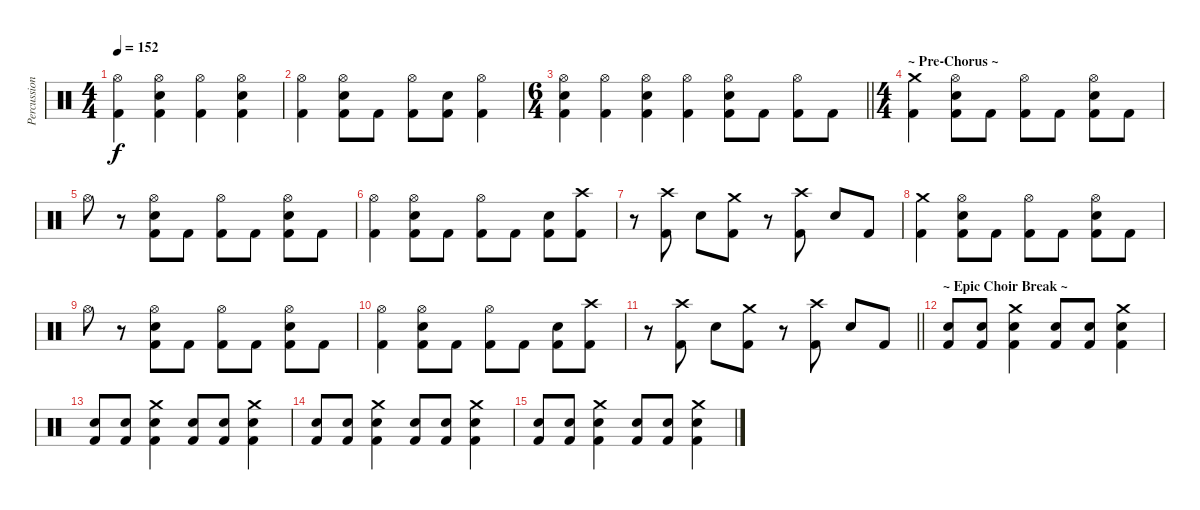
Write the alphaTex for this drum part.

\track ("Percussion" "Percussion") {instrument percussion}
\staff {score}
\articulation defaults
\ts (4 4)
\tempo 152
\clef neutral
\ks c
("Hi-Hat (open)" "Kick (hit) 2").4{dy f} ("Hi-Hat (open)" "Electric Snare (hit)" "Kick (hit) 2").4 ("Hi-Hat (open)" "Kick (hit) 2").4 ("Hi-Hat (open)" "Electric Snare (hit)" "Kick (hit) 2").4 |
("Hi-Hat (open)" "Kick (hit) 2").4 ("Hi-Hat (open)" "Electric Snare (hit)" "Kick (hit) 2").8 "Kick (hit) 2".8 ("Hi-Hat (open)" "Kick (hit) 2").8 ("Electric Snare (hit)" "Kick (hit) 2").8 ("Hi-Hat (open)" "Kick (hit) 2").4 |
\ts (6 4)
\barLineRight lightlight
("Hi-Hat (open)" "Electric Snare (hit)" "Kick (hit) 2").4 ("Hi-Hat (open)" "Kick (hit) 2").4 ("Hi-Hat (open)" "Electric Snare (hit)" "Kick (hit) 2").4 ("Hi-Hat (open)" "Kick (hit) 2").4 ("Hi-Hat (open)" "Electric Snare (hit)" "Kick (hit) 2").8 "Kick (hit) 2".8 ("Hi-Hat (open)" "Kick (hit) 2").8 "Kick (hit) 2".8 |
\ts (4 4)
\section ("" "~ Pre-Chorus ~")
("Crash medium (hit)" "Kick (hit) 2").4 ("Hi-Hat (open)" "Electric Snare (hit)" "Kick (hit) 2").8 "Kick (hit) 2".8 ("Hi-Hat (open)" "Kick (hit) 2").8 "Kick (hit) 2".8 ("Hi-Hat (open)" "Electric Snare (hit)" "Kick (hit) 2").8 "Kick (hit) 2".8 |
"Hi-Hat (open)".8 r.8 ("Hi-Hat (open)" "Electric Snare (hit)" "Kick (hit) 2").8 "Kick (hit) 2".8 ("Hi-Hat (open)" "Kick (hit) 2").8 "Kick (hit) 2".8 ("Hi-Hat (open)" "Electric Snare (hit)" "Kick (hit) 2").8 "Kick (hit) 2".8 |
("Hi-Hat (open)" "Kick (hit) 2").4 ("Hi-Hat (open)" "Electric Snare (hit)" "Kick (hit) 2").8 "Kick (hit) 2".8 ("Hi-Hat (open)" "Kick (hit) 2").8 "Kick (hit) 2".8 ("Electric Snare (hit)" "Kick (hit) 2").8 ("Crash high (hit)" "Kick (hit) 2").8 |
r.8 ("Crash high (hit)" "Kick (hit) 2").8 "Electric Snare (hit)".8 ("Crash medium (hit)" "Kick (hit) 2").8 r.8 ("Crash high (hit)" "Kick (hit) 2").8 "Electric Snare (hit)".8 "Kick (hit) 2".8 |
("Crash medium (hit)" "Kick (hit) 2").4 ("Hi-Hat (open)" "Electric Snare (hit)" "Kick (hit) 2").8 "Kick (hit) 2".8 ("Hi-Hat (open)" "Kick (hit) 2").8 "Kick (hit) 2".8 ("Hi-Hat (open)" "Electric Snare (hit)" "Kick (hit) 2").8 "Kick (hit) 2".8 |
"Hi-Hat (open)".8 r.8 ("Hi-Hat (open)" "Electric Snare (hit)" "Kick (hit) 2").8 "Kick (hit) 2".8 ("Hi-Hat (open)" "Kick (hit) 2").8 "Kick (hit) 2".8 ("Hi-Hat (open)" "Electric Snare (hit)" "Kick (hit) 2").8 "Kick (hit) 2".8 |
("Hi-Hat (open)" "Kick (hit) 2").4 ("Hi-Hat (open)" "Electric Snare (hit)" "Kick (hit) 2").8 "Kick (hit) 2".8 ("Hi-Hat (open)" "Kick (hit) 2").8 "Kick (hit) 2".8 ("Electric Snare (hit)" "Kick (hit) 2").8 ("Crash high (hit)" "Kick (hit) 2").8 |
\barLineRight lightlight
r.8 ("Crash high (hit)" "Kick (hit) 2").8 "Electric Snare (hit)".8 ("Crash medium (hit)" "Kick (hit) 2").8 r.8 ("Crash high (hit)" "Kick (hit) 2").8 "Electric Snare (hit)".8 "Kick (hit) 2".8 |
\section ("" "~ Epic Choir Break ~")
("Electric Snare (hit)" "Kick (hit) 2").8 ("Electric Snare (hit)" "Kick (hit) 2").8 ("Crash medium (hit)" "Electric Snare (hit)" "Kick (hit) 2").4 ("Electric Snare (hit)" "Kick (hit) 2").8 ("Electric Snare (hit)" "Kick (hit) 2").8 ("Crash medium (hit)" "Electric Snare (hit)" "Kick (hit) 2").4 |
("Electric Snare (hit)" "Kick (hit) 2").8 ("Electric Snare (hit)" "Kick (hit) 2").8 ("Crash medium (hit)" "Electric Snare (hit)" "Kick (hit) 2").4 ("Electric Snare (hit)" "Kick (hit) 2").8 ("Electric Snare (hit)" "Kick (hit) 2").8 ("Crash medium (hit)" "Electric Snare (hit)" "Kick (hit) 2").4 |
("Electric Snare (hit)" "Kick (hit) 2").8 ("Electric Snare (hit)" "Kick (hit) 2").8 ("Crash medium (hit)" "Electric Snare (hit)" "Kick (hit) 2").4 ("Electric Snare (hit)" "Kick (hit) 2").8 ("Electric Snare (hit)" "Kick (hit) 2").8 ("Crash medium (hit)" "Electric Snare (hit)" "Kick (hit) 2").4 |
("Electric Snare (hit)" "Kick (hit) 2").8 ("Electric Snare (hit)" "Kick (hit) 2").8 ("Crash medium (hit)" "Electric Snare (hit)" "Kick (hit) 2").4 ("Electric Snare (hit)" "Kick (hit) 2").8 ("Electric Snare (hit)" "Kick (hit) 2").8 ("Crash medium (hit)" "Electric Snare (hit)" "Kick (hit) 2").4
